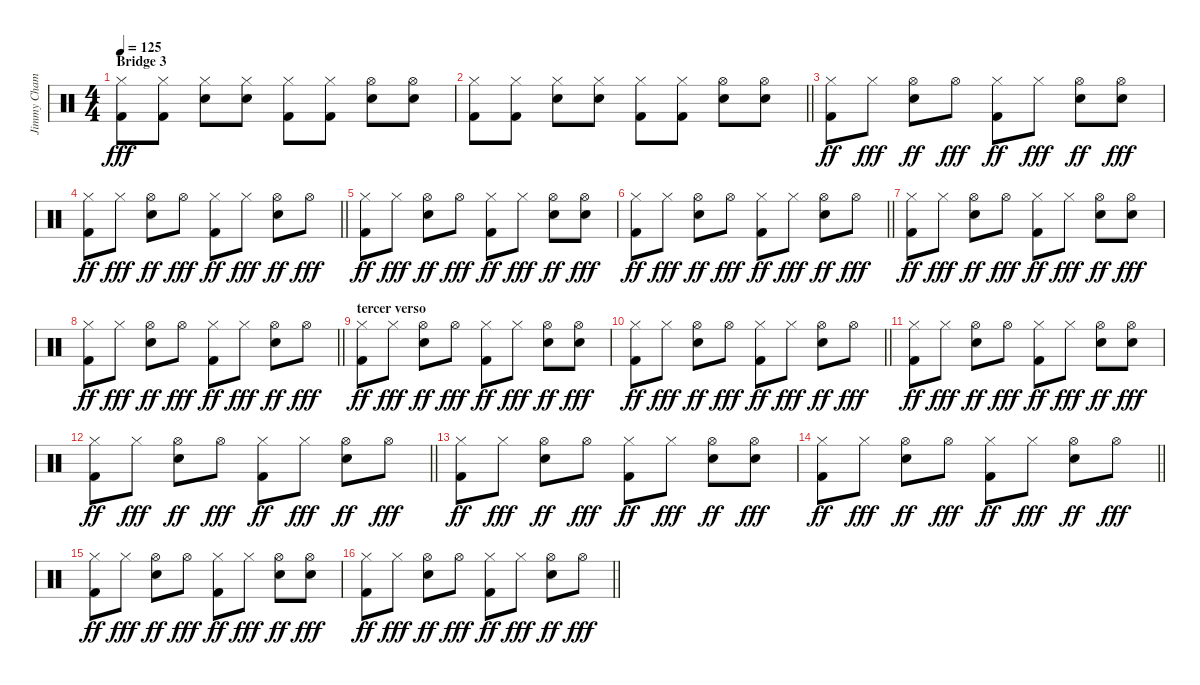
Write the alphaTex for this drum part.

\track ("Jimmy Chamberline" "Jimmy Cham") {instrument percussion}
\staff {score}
\articulation defaults
\ts (4 4)
\section ("" "Bridge 3")
\tempo 125
\clef neutral
\ks c
("Hi-Hat (closed)" "Kick (hit) 2").8{dy fff} ("Hi-Hat (closed)" "Kick (hit) 2").8 ("Hi-Hat (closed)" "Snare (hit) 2").8 ("Hi-Hat (closed)" "Snare (hit) 2").8 ("Hi-Hat (closed)" "Kick (hit) 2").8 ("Hi-Hat (closed)" "Kick (hit) 2").8 ("Hi-Hat (open)" "Snare (hit) 2").8 ("Hi-Hat (open)" "Snare (hit) 2").8 |
\barLineRight lightlight
("Hi-Hat (closed)" "Kick (hit) 2").8 ("Hi-Hat (closed)" "Kick (hit) 2").8 ("Hi-Hat (closed)" "Snare (hit) 2").8 ("Hi-Hat (closed)" "Snare (hit) 2").8 ("Hi-Hat (closed)" "Kick (hit) 2").8 ("Hi-Hat (closed)" "Kick (hit) 2").8 ("Hi-Hat (open)" "Snare (hit) 2").8 ("Hi-Hat (open)" "Snare (hit) 2").8 |
("Hi-Hat (closed)" "Kick (hit) 2").8{dy ff} "Hi-Hat (closed)".8{dy fff} ("Hi-Hat (open)" "Snare (hit) 2").8{dy ff} "Hi-Hat (open)".8{dy fff} ("Hi-Hat (closed)" "Kick (hit) 2").8{dy ff} "Hi-Hat (closed)".8{dy fff} ("Hi-Hat (open)" "Snare (hit) 2").8{dy ff} ("Hi-Hat (open)" "Snare (hit) 2").8{dy fff} |
\barLineRight lightlight
("Hi-Hat (closed)" "Kick (hit) 2").8{dy ff} "Hi-Hat (closed)".8{dy fff} ("Hi-Hat (open)" "Snare (hit) 2").8{dy ff} "Hi-Hat (open)".8{dy fff} ("Hi-Hat (closed)" "Kick (hit) 2").8{dy ff} "Hi-Hat (closed)".8{dy fff} ("Hi-Hat (open)" "Snare (hit) 2").8{dy ff} "Hi-Hat (open)".8{dy fff} |
("Hi-Hat (closed)" "Kick (hit) 2").8{dy ff} "Hi-Hat (closed)".8{dy fff} ("Hi-Hat (open)" "Snare (hit) 2").8{dy ff} "Hi-Hat (open)".8{dy fff} ("Hi-Hat (closed)" "Kick (hit) 2").8{dy ff} "Hi-Hat (closed)".8{dy fff} ("Hi-Hat (open)" "Snare (hit) 2").8{dy ff} ("Hi-Hat (open)" "Snare (hit) 2").8{dy fff} |
\barLineRight lightlight
("Hi-Hat (closed)" "Kick (hit) 2").8{dy ff} "Hi-Hat (closed)".8{dy fff} ("Hi-Hat (open)" "Snare (hit) 2").8{dy ff} "Hi-Hat (open)".8{dy fff} ("Hi-Hat (closed)" "Kick (hit) 2").8{dy ff} "Hi-Hat (closed)".8{dy fff} ("Hi-Hat (open)" "Snare (hit) 2").8{dy ff} "Hi-Hat (open)".8{dy fff} |
("Hi-Hat (closed)" "Kick (hit) 2").8{dy ff} "Hi-Hat (closed)".8{dy fff} ("Hi-Hat (open)" "Snare (hit) 2").8{dy ff} "Hi-Hat (open)".8{dy fff} ("Hi-Hat (closed)" "Kick (hit) 2").8{dy ff} "Hi-Hat (closed)".8{dy fff} ("Hi-Hat (open)" "Snare (hit) 2").8{dy ff} ("Hi-Hat (open)" "Snare (hit) 2").8{dy fff} |
\barLineRight lightlight
("Hi-Hat (closed)" "Kick (hit) 2").8{dy ff} "Hi-Hat (closed)".8{dy fff} ("Hi-Hat (open)" "Snare (hit) 2").8{dy ff} "Hi-Hat (open)".8{dy fff} ("Hi-Hat (closed)" "Kick (hit) 2").8{dy ff} "Hi-Hat (closed)".8{dy fff} ("Hi-Hat (open)" "Snare (hit) 2").8{dy ff} "Hi-Hat (open)".8{dy fff} |
\section ("" "tercer verso")
("Hi-Hat (closed)" "Kick (hit) 2").8{dy ff} "Hi-Hat (closed)".8{dy fff} ("Hi-Hat (open)" "Snare (hit) 2").8{dy ff} "Hi-Hat (open)".8{dy fff} ("Hi-Hat (closed)" "Kick (hit) 2").8{dy ff} "Hi-Hat (closed)".8{dy fff} ("Hi-Hat (open)" "Snare (hit) 2").8{dy ff} ("Hi-Hat (open)" "Snare (hit) 2").8{dy fff} |
\barLineRight lightlight
("Hi-Hat (closed)" "Kick (hit) 2").8{dy ff} "Hi-Hat (closed)".8{dy fff} ("Hi-Hat (open)" "Snare (hit) 2").8{dy ff} "Hi-Hat (open)".8{dy fff} ("Hi-Hat (closed)" "Kick (hit) 2").8{dy ff} "Hi-Hat (closed)".8{dy fff} ("Hi-Hat (open)" "Snare (hit) 2").8{dy ff} "Hi-Hat (open)".8{dy fff} |
("Hi-Hat (closed)" "Kick (hit) 2").8{dy ff} "Hi-Hat (closed)".8{dy fff} ("Hi-Hat (open)" "Snare (hit) 2").8{dy ff} "Hi-Hat (open)".8{dy fff} ("Hi-Hat (closed)" "Kick (hit) 2").8{dy ff} "Hi-Hat (closed)".8{dy fff} ("Hi-Hat (open)" "Snare (hit) 2").8{dy ff} ("Hi-Hat (open)" "Snare (hit) 2").8{dy fff} |
\barLineRight lightlight
("Hi-Hat (closed)" "Kick (hit) 2").8{dy ff} "Hi-Hat (closed)".8{dy fff} ("Hi-Hat (open)" "Snare (hit) 2").8{dy ff} "Hi-Hat (open)".8{dy fff} ("Hi-Hat (closed)" "Kick (hit) 2").8{dy ff} "Hi-Hat (closed)".8{dy fff} ("Hi-Hat (open)" "Snare (hit) 2").8{dy ff} "Hi-Hat (open)".8{dy fff} |
("Hi-Hat (closed)" "Kick (hit) 2").8{dy ff} "Hi-Hat (closed)".8{dy fff} ("Hi-Hat (open)" "Snare (hit) 2").8{dy ff} "Hi-Hat (open)".8{dy fff} ("Hi-Hat (closed)" "Kick (hit) 2").8{dy ff} "Hi-Hat (closed)".8{dy fff} ("Hi-Hat (open)" "Snare (hit) 2").8{dy ff} ("Hi-Hat (open)" "Snare (hit) 2").8{dy fff} |
\barLineRight lightlight
("Hi-Hat (closed)" "Kick (hit) 2").8{dy ff} "Hi-Hat (closed)".8{dy fff} ("Hi-Hat (open)" "Snare (hit) 2").8{dy ff} "Hi-Hat (open)".8{dy fff} ("Hi-Hat (closed)" "Kick (hit) 2").8{dy ff} "Hi-Hat (closed)".8{dy fff} ("Hi-Hat (open)" "Snare (hit) 2").8{dy ff} "Hi-Hat (open)".8{dy fff} |
("Hi-Hat (closed)" "Kick (hit) 2").8{dy ff} "Hi-Hat (closed)".8{dy fff} ("Hi-Hat (open)" "Snare (hit) 2").8{dy ff} "Hi-Hat (open)".8{dy fff} ("Hi-Hat (closed)" "Kick (hit) 2").8{dy ff} "Hi-Hat (closed)".8{dy fff} ("Hi-Hat (open)" "Snare (hit) 2").8{dy ff} ("Hi-Hat (open)" "Snare (hit) 2").8{dy fff} |
\barLineRight lightlight
("Hi-Hat (closed)" "Kick (hit) 2").8{dy ff} "Hi-Hat (closed)".8{dy fff} ("Hi-Hat (open)" "Snare (hit) 2").8{dy ff} "Hi-Hat (open)".8{dy fff} ("Hi-Hat (closed)" "Kick (hit) 2").8{dy ff} "Hi-Hat (closed)".8{dy fff} ("Hi-Hat (open)" "Snare (hit) 2").8{dy ff} "Hi-Hat (open)".8{dy fff}
